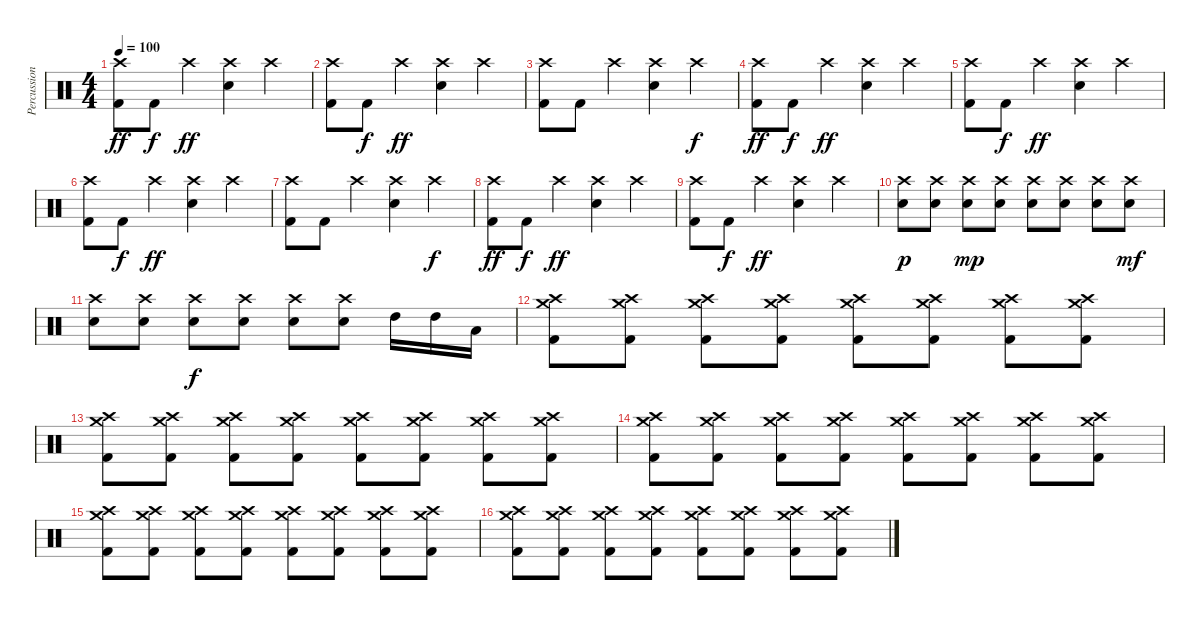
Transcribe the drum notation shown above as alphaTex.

\track ("Percussion" "Percussion") {instrument percussion}
\staff {score}
\articulation defaults
\ts (4 4)
\tempo 100
\clef neutral
\ks c
("Crash high (hit)" "Kick (hit) 2").8{dy ff} "Kick (hit) 2".8{dy f} "Crash high (hit)".4{dy ff} ("Crash high (hit)" "Electric Snare (hit)").4 "Crash high (hit)".4 |
("Crash high (hit)" "Kick (hit) 2").8 "Kick (hit) 2".8{dy f} "Crash high (hit)".4{dy ff} ("Crash high (hit)" "Electric Snare (hit)").4 "Crash high (hit)".4 |
("Crash high (hit)" "Kick (hit) 2").8 "Kick (hit) 2".8 "Crash high (hit)".4 ("Crash high (hit)" "Electric Snare (hit)").4 "Crash high (hit)".4{dy f} |
("Crash high (hit)" "Kick (hit) 2").8{dy ff} "Kick (hit) 2".8{dy f} "Crash high (hit)".4{dy ff} ("Crash high (hit)" "Electric Snare (hit)").4 "Crash high (hit)".4 |
("Crash high (hit)" "Kick (hit) 2").8 "Kick (hit) 2".8{dy f} "Crash high (hit)".4{dy ff} ("Crash high (hit)" "Electric Snare (hit)").4 "Crash high (hit)".4 |
("Crash high (hit)" "Kick (hit) 2").8 "Kick (hit) 2".8{dy f} "Crash high (hit)".4{dy ff} ("Crash high (hit)" "Electric Snare (hit)").4 "Crash high (hit)".4 |
("Crash high (hit)" "Kick (hit) 2").8 "Kick (hit) 2".8 "Crash high (hit)".4 ("Crash high (hit)" "Electric Snare (hit)").4 "Crash high (hit)".4{dy f} |
("Crash high (hit)" "Kick (hit) 2").8{dy ff} "Kick (hit) 2".8{dy f} "Crash high (hit)".4{dy ff} ("Crash high (hit)" "Electric Snare (hit)").4 "Crash high (hit)".4 |
("Crash high (hit)" "Kick (hit) 2").8 "Kick (hit) 2".8{dy f} "Crash high (hit)".4{dy ff} ("Crash high (hit)" "Electric Snare (hit)").4 "Crash high (hit)".4 |
("Crash high (hit)" "Electric Snare (hit)").8{dy p} ("Crash high (hit)" "Electric Snare (hit)").8 ("Crash high (hit)" "Electric Snare (hit)").8{dy mp} ("Crash high (hit)" "Electric Snare (hit)").8 ("Crash high (hit)" "Electric Snare (hit)").8 ("Crash high (hit)" "Electric Snare (hit)").8 ("Crash high (hit)" "Electric Snare (hit)").8 ("Crash high (hit)" "Electric Snare (hit)").8{dy mf} |
("Crash high (hit)" "Electric Snare (hit)").8 ("Crash high (hit)" "Electric Snare (hit)").8 ("Crash high (hit)" "Electric Snare (hit)").8{dy f} ("Crash high (hit)" "Electric Snare (hit)").8 ("Crash high (hit)" "Electric Snare (hit)").8 ("Crash high (hit)" "Electric Snare (hit)").8 "High Tom (hit)".16 "High Tom (hit)".16 "Low Tom (hit)".16 |
("Crash medium (hit)" "Crash high (hit)" "Kick (hit) 2").8 ("Crash medium (hit)" "Crash high (hit)" "Kick (hit) 2").8 ("Crash medium (hit)" "Crash high (hit)" "Kick (hit) 2").8 ("Crash medium (hit)" "Crash high (hit)" "Kick (hit) 2").8 ("Crash medium (hit)" "Crash high (hit)" "Kick (hit) 2").8 ("Crash medium (hit)" "Crash high (hit)" "Kick (hit) 2").8 ("Crash medium (hit)" "Crash high (hit)" "Kick (hit) 2").8 ("Crash medium (hit)" "Crash high (hit)" "Kick (hit) 2").8 |
("Crash medium (hit)" "Crash high (hit)" "Kick (hit) 2").8 ("Crash medium (hit)" "Crash high (hit)" "Kick (hit) 2").8 ("Crash medium (hit)" "Crash high (hit)" "Kick (hit) 2").8 ("Crash medium (hit)" "Crash high (hit)" "Kick (hit) 2").8 ("Crash medium (hit)" "Crash high (hit)" "Kick (hit) 2").8 ("Crash medium (hit)" "Crash high (hit)" "Kick (hit) 2").8 ("Crash medium (hit)" "Crash high (hit)" "Kick (hit) 2").8 ("Crash medium (hit)" "Crash high (hit)" "Kick (hit) 2").8 |
("Crash medium (hit)" "Crash high (hit)" "Kick (hit) 2").8 ("Crash medium (hit)" "Crash high (hit)" "Kick (hit) 2").8 ("Crash medium (hit)" "Crash high (hit)" "Kick (hit) 2").8 ("Crash medium (hit)" "Crash high (hit)" "Kick (hit) 2").8 ("Crash medium (hit)" "Crash high (hit)" "Kick (hit) 2").8 ("Crash medium (hit)" "Crash high (hit)" "Kick (hit) 2").8 ("Crash medium (hit)" "Crash high (hit)" "Kick (hit) 2").8 ("Crash medium (hit)" "Crash high (hit)" "Kick (hit) 2").8 |
("Crash medium (hit)" "Crash high (hit)" "Kick (hit) 2").8 ("Crash medium (hit)" "Crash high (hit)" "Kick (hit) 2").8 ("Crash medium (hit)" "Crash high (hit)" "Kick (hit) 2").8 ("Crash medium (hit)" "Crash high (hit)" "Kick (hit) 2").8 ("Crash medium (hit)" "Crash high (hit)" "Kick (hit) 2").8 ("Crash medium (hit)" "Crash high (hit)" "Kick (hit) 2").8 ("Crash medium (hit)" "Crash high (hit)" "Kick (hit) 2").8 ("Crash medium (hit)" "Crash high (hit)" "Kick (hit) 2").8 |
("Crash medium (hit)" "Crash high (hit)" "Kick (hit) 2").8 ("Crash medium (hit)" "Crash high (hit)" "Kick (hit) 2").8 ("Crash medium (hit)" "Crash high (hit)" "Kick (hit) 2").8 ("Crash medium (hit)" "Crash high (hit)" "Kick (hit) 2").8 ("Crash medium (hit)" "Crash high (hit)" "Kick (hit) 2").8 ("Crash medium (hit)" "Crash high (hit)" "Kick (hit) 2").8 ("Crash medium (hit)" "Crash high (hit)" "Kick (hit) 2").8 ("Crash medium (hit)" "Crash high (hit)" "Kick (hit) 2").8
